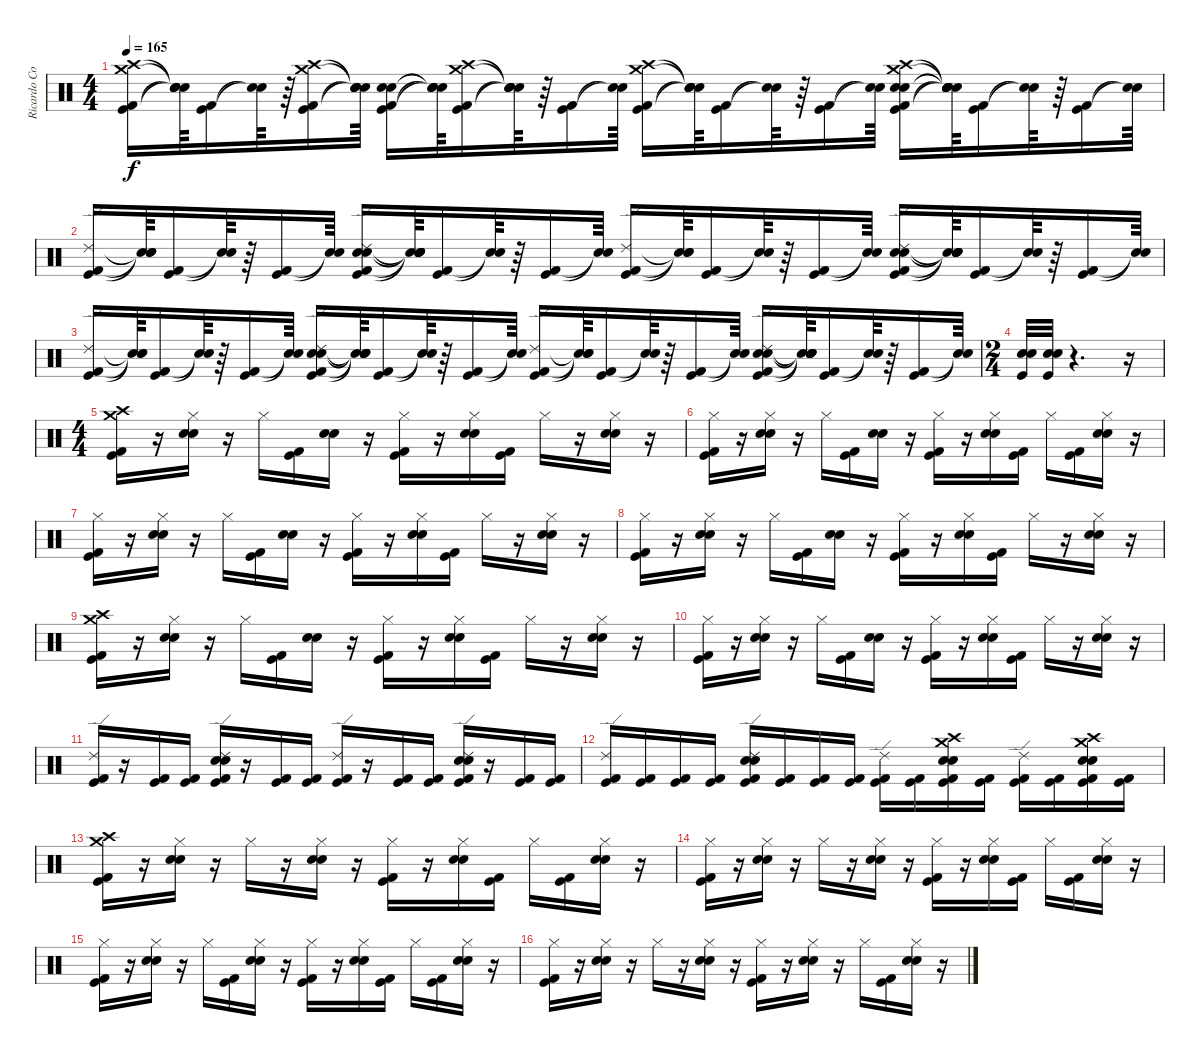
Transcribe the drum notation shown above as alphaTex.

\track ("Ricardo Confessori" "Ricardo Co") {instrument percussion}
\staff {score}
\articulation defaults
\ts (4 4)
\tempo 165
\clef neutral
\ks c
("Crash high (hit)" "Crash medium (hit)" "Kick (hit) 2" "Kick (hit)").16{dy f} ("Snare (hit)"{t} "Snare (hit)"{t} "Snare (hit)"{t} "Snare (hit)"{t}).64 ("Kick (hit) 2" "Kick (hit)").16 ("Snare (hit)"{t} "Snare (hit)"{t}).64 r.64 ("Crash medium (hit)" "Crash high (hit)" "Kick (hit) 2" "Kick (hit)").16 ("Snare (hit)"{t} "Snare (hit)"{t} "Snare (hit)"{t} "Snare (hit)"{t}).64 ("Electric Snare (hit)" "Snare (hit) 2" "Kick (hit) 2" "Kick (hit)").16 ("Snare (hit)"{t} "Snare (hit)"{t} "Snare (hit)"{t} "Snare (hit)"{t}).64 ("Crash medium (hit)" "Crash high (hit)" "Kick (hit) 2" "Kick (hit)").16 ("Snare (hit)"{t} "Snare (hit)"{t} "Snare (hit)"{t} "Snare (hit)"{t}).64 r.64 ("Kick (hit) 2" "Kick (hit)").16 ("Snare (hit)"{t} "Snare (hit)"{t}).64 ("Crash high (hit)" "Crash medium (hit)" "Kick (hit) 2" "Kick (hit)").16 ("Snare (hit)"{t} "Snare (hit)"{t} "Snare (hit)"{t} "Snare (hit)"{t}).64 ("Kick (hit) 2" "Kick (hit)").16 ("Snare (hit)"{t} "Snare (hit)"{t}).64 r.64 ("Kick (hit) 2" "Kick (hit)").16 ("Snare (hit)"{t} "Snare (hit)"{t}).64 ("Crash high (hit)" "Crash medium (hit)" "Electric Snare (hit)" "Snare (hit) 2" "Kick (hit) 2" "Kick (hit)").16 ("Snare (hit)"{t} "Snare (hit)"{t} "Snare (hit)"{t} "Snare (hit)"{t} "Snare (hit)"{t} "Snare (hit)"{t}).64 ("Kick (hit) 2" "Kick (hit)").16 ("Snare (hit)"{t} "Snare (hit)"{t}).64 r.64 ("Kick (hit) 2" "Kick (hit)").16 ("Snare (hit)"{t} "Snare (hit)"{t}).64 |
("Ride (edge) 2" "Kick (hit) 2" "Kick (hit)").16 ("Snare (hit)"{t} "Snare (hit)"{t} "Snare (hit)"{t}).64 ("Kick (hit) 2" "Kick (hit)").16 ("Snare (hit)"{t} "Snare (hit)"{t}).64 r.64 ("Kick (hit) 2" "Kick (hit)").16 ("Snare (hit)"{t} "Snare (hit)"{t}).64 ("Ride (edge) 2" "Electric Snare (hit)" "Snare (hit) 2" "Kick (hit) 2" "Kick (hit)").16 ("Snare (hit)"{t} "Snare (hit)"{t} "Snare (hit)"{t} "Snare (hit)"{t} "Snare (hit)"{t}).64 ("Kick (hit) 2" "Kick (hit)").16 ("Snare (hit)"{t} "Snare (hit)"{t}).64 r.64 ("Kick (hit) 2" "Kick (hit)").16 ("Snare (hit)"{t} "Snare (hit)"{t}).64 ("Ride (edge) 2" "Kick (hit) 2" "Kick (hit)").16 ("Snare (hit)"{t} "Snare (hit)"{t} "Snare (hit)"{t}).64 ("Kick (hit) 2" "Kick (hit)").16 ("Snare (hit)"{t} "Snare (hit)"{t}).64 r.64 ("Kick (hit) 2" "Kick (hit)").16 ("Snare (hit)"{t} "Snare (hit)"{t}).64 ("Ride (edge) 2" "Electric Snare (hit)" "Snare (hit) 2" "Kick (hit) 2" "Kick (hit)").16 ("Snare (hit)"{t} "Snare (hit)"{t} "Snare (hit)"{t} "Snare (hit)"{t} "Snare (hit)"{t}).64 ("Kick (hit) 2" "Kick (hit)").16 ("Snare (hit)"{t} "Snare (hit)"{t}).64 r.64 ("Kick (hit) 2" "Kick (hit)").16 ("Snare (hit)"{t} "Snare (hit)"{t}).64 |
("Ride (edge) 2" "Kick (hit) 2" "Kick (hit)").16 ("Snare (hit)"{t} "Snare (hit)"{t} "Snare (hit)"{t}).64 ("Kick (hit) 2" "Kick (hit)").16 ("Snare (hit)"{t} "Snare (hit)"{t}).64 r.64 ("Kick (hit) 2" "Kick (hit)").16 ("Snare (hit)"{t} "Snare (hit)"{t}).64 ("Ride (edge) 2" "Electric Snare (hit)" "Snare (hit) 2" "Kick (hit) 2" "Kick (hit)").16 ("Snare (hit)"{t} "Snare (hit)"{t} "Snare (hit)"{t} "Snare (hit)"{t} "Snare (hit)"{t}).64 ("Kick (hit) 2" "Kick (hit)").16 ("Snare (hit)"{t} "Snare (hit)"{t}).64 r.64 ("Kick (hit) 2" "Kick (hit)").16 ("Snare (hit)"{t} "Snare (hit)"{t}).64 ("Ride (edge) 2" "Kick (hit) 2" "Kick (hit)").16 ("Snare (hit)"{t} "Snare (hit)"{t} "Snare (hit)"{t}).64 ("Kick (hit) 2" "Kick (hit)").16 ("Snare (hit)"{t} "Snare (hit)"{t}).64 r.64 ("Kick (hit) 2" "Kick (hit)").16 ("Snare (hit)"{t} "Snare (hit)"{t}).64 ("Ride (edge) 2" "Electric Snare (hit)" "Snare (hit) 2" "Kick (hit) 2" "Kick (hit)").16 ("Snare (hit)"{t} "Snare (hit)"{t} "Snare (hit)"{t} "Snare (hit)"{t} "Snare (hit)"{t}).64 ("Kick (hit) 2" "Kick (hit)").16 ("Snare (hit)"{t} "Snare (hit)"{t}).64 r.64 ("Kick (hit) 2" "Kick (hit)").16 ("Snare (hit)"{t} "Snare (hit)"{t}).64 |
\ts (2 4)
("Kick (hit)" "Electric Snare (hit)" "Snare (hit) 2").32 ("Kick (hit)" "Electric Snare (hit)" "Snare (hit) 2").32 r.4{d} r.16 |
\ts (4 4)
("Crash high (hit)" "Crash medium (hit)" "Kick (hit) 2" "Kick (hit)").16 r.16 ("Hi-Hat (closed)" "Electric Snare (hit)" "Snare (hit) 2").16 r.16 "Hi-Hat (closed)".16 ("Kick (hit) 2" "Kick (hit)").16 ("Electric Snare (hit)" "Snare (hit) 2").16 r.16 ("Hi-Hat (closed)" "Kick (hit) 2" "Kick (hit)").16 r.16 ("Hi-Hat (closed)" "Electric Snare (hit)" "Snare (hit) 2").16 ("Kick (hit) 2" "Kick (hit)").16 "Hi-Hat (closed)".16 r.16 ("Hi-Hat (closed)" "Electric Snare (hit)" "Snare (hit) 2").16 r.16 |
("Hi-Hat (closed)" "Kick (hit) 2" "Kick (hit)").16 r.16 ("Hi-Hat (closed)" "Electric Snare (hit)" "Snare (hit) 2").16 r.16 "Hi-Hat (closed)".16 ("Kick (hit) 2" "Kick (hit)").16 ("Electric Snare (hit)" "Snare (hit) 2").16 r.16 ("Hi-Hat (closed)" "Kick (hit) 2" "Kick (hit)").16 r.16 ("Hi-Hat (closed)" "Electric Snare (hit)" "Snare (hit) 2").16 ("Kick (hit) 2" "Kick (hit)").16 "Hi-Hat (closed)".16 ("Kick (hit) 2" "Kick (hit)").16 ("Hi-Hat (closed)" "Electric Snare (hit)" "Snare (hit) 2").16 r.16 |
("Hi-Hat (closed)" "Kick (hit) 2" "Kick (hit)").16 r.16 ("Hi-Hat (closed)" "Electric Snare (hit)" "Snare (hit) 2").16 r.16 "Hi-Hat (closed)".16 ("Kick (hit) 2" "Kick (hit)").16 ("Electric Snare (hit)" "Snare (hit) 2").16 r.16 ("Hi-Hat (closed)" "Kick (hit) 2" "Kick (hit)").16 r.16 ("Hi-Hat (closed)" "Electric Snare (hit)" "Snare (hit) 2").16 ("Kick (hit) 2" "Kick (hit)").16 "Hi-Hat (closed)".16 r.16 ("Hi-Hat (closed)" "Electric Snare (hit)" "Snare (hit) 2").16 r.16 |
("Hi-Hat (closed)" "Kick (hit) 2" "Kick (hit)").16 r.16 ("Hi-Hat (closed)" "Electric Snare (hit)" "Snare (hit) 2").16 r.16 "Hi-Hat (closed)".16 ("Kick (hit) 2" "Kick (hit)").16 ("Electric Snare (hit)" "Snare (hit) 2").16 r.16 ("Hi-Hat (closed)" "Kick (hit) 2" "Kick (hit)").16 r.16 ("Hi-Hat (closed)" "Electric Snare (hit)" "Snare (hit) 2").16 ("Kick (hit) 2" "Kick (hit)").16 "Hi-Hat (closed)".16 r.16 ("Hi-Hat (closed)" "Electric Snare (hit)" "Snare (hit) 2").16 r.16 |
("Crash medium (hit)" "Crash high (hit)" "Kick (hit) 2" "Kick (hit)").16 r.16 ("Hi-Hat (closed)" "Electric Snare (hit)" "Snare (hit) 2").16 r.16 "Hi-Hat (closed)".16 ("Kick (hit) 2" "Kick (hit)").16 ("Electric Snare (hit)" "Snare (hit) 2").16 r.16 ("Hi-Hat (closed)" "Kick (hit) 2" "Kick (hit)").16 r.16 ("Hi-Hat (closed)" "Electric Snare (hit)" "Snare (hit) 2").16 ("Kick (hit) 2" "Kick (hit)").16 "Hi-Hat (closed)".16 r.16 ("Hi-Hat (closed)" "Electric Snare (hit)" "Snare (hit) 2").16 r.16 |
("Hi-Hat (closed)" "Kick (hit) 2" "Kick (hit)").16 r.16 ("Hi-Hat (closed)" "Electric Snare (hit)" "Snare (hit) 2").16 r.16 "Hi-Hat (closed)".16 ("Kick (hit) 2" "Kick (hit)").16 ("Electric Snare (hit)" "Snare (hit) 2").16 r.16 ("Hi-Hat (closed)" "Kick (hit) 2" "Kick (hit)").16 r.16 ("Hi-Hat (closed)" "Electric Snare (hit)" "Snare (hit) 2").16 ("Kick (hit) 2" "Kick (hit)").16 "Hi-Hat (closed)".16 r.16 ("Hi-Hat (closed)" "Electric Snare (hit)" "Snare (hit) 2").16 r.16 |
("Ride (edge) 2" "Kick (hit) 2" "Kick (hit)").16 r.16 ("Kick (hit) 2" "Kick (hit)").16 ("Kick (hit) 2" "Kick (hit)").16 ("Electric Snare (hit)" "Snare (hit) 2" "Ride (edge) 2" "Kick (hit) 2" "Kick (hit)").16 r.16 ("Kick (hit) 2" "Kick (hit)").16 ("Kick (hit) 2" "Kick (hit)").16 ("Ride (edge) 2" "Kick (hit) 2" "Kick (hit)").16 r.16 ("Kick (hit) 2" "Kick (hit)").16 ("Kick (hit) 2" "Kick (hit)").16 ("Electric Snare (hit)" "Snare (hit) 2" "Ride (edge) 2" "Kick (hit) 2" "Kick (hit)").16 r.16 ("Kick (hit) 2" "Kick (hit)").16 ("Kick (hit) 2" "Kick (hit)").16 |
("Ride (edge) 2" "Kick (hit) 2" "Kick (hit)").16 ("Kick (hit) 2" "Kick (hit)").16 ("Kick (hit) 2" "Kick (hit)").16 ("Kick (hit) 2" "Kick (hit)").16 ("Electric Snare (hit)" "Snare (hit) 2" "Ride (edge) 2" "Kick (hit) 2" "Kick (hit)").16 ("Kick (hit) 2" "Kick (hit)").16 ("Kick (hit) 2" "Kick (hit)").16 ("Kick (hit) 2" "Kick (hit)").16 ("Ride (edge) 2" "Kick (hit) 2" "Kick (hit)").16 ("Kick (hit) 2" "Kick (hit)").16 ("Crash high (hit)" "Electric Snare (hit)" "Snare (hit) 2" "Crash medium (hit)" "Kick (hit) 2" "Kick (hit)").16 ("Kick (hit) 2" "Kick (hit)").16 ("Ride (edge) 2" "Kick (hit) 2" "Kick (hit)").16 ("Kick (hit) 2" "Kick (hit)").16 ("Electric Snare (hit)" "Snare (hit) 2" "Crash high (hit)" "Crash medium (hit)" "Kick (hit) 2" "Kick (hit)").16 ("Kick (hit) 2" "Kick (hit)").16 |
("Crash high (hit)" "Crash medium (hit)" "Kick (hit) 2" "Kick (hit)").16 r.16 ("Hi-Hat (closed)" "Electric Snare (hit)" "Snare (hit) 2").16 r.16 "Hi-Hat (closed)".16 r.16 ("Hi-Hat (closed)" "Electric Snare (hit)" "Snare (hit) 2").16 r.16 ("Hi-Hat (closed)" "Kick (hit) 2" "Kick (hit)").16 r.16 ("Hi-Hat (closed)" "Electric Snare (hit)" "Snare (hit) 2").16 ("Kick (hit) 2" "Kick (hit)").16 "Hi-Hat (closed)".16 ("Kick (hit) 2" "Kick (hit)").16 ("Hi-Hat (closed)" "Electric Snare (hit)" "Snare (hit) 2").16 r.16 |
("Hi-Hat (closed)" "Kick (hit) 2" "Kick (hit)").16 r.16 ("Hi-Hat (closed)" "Electric Snare (hit)" "Snare (hit) 2").16 r.16 "Hi-Hat (closed)".16 r.16 ("Electric Snare (hit)" "Hi-Hat (closed)" "Snare (hit) 2").16 r.16 ("Hi-Hat (closed)" "Kick (hit) 2" "Kick (hit)").16 r.16 ("Hi-Hat (closed)" "Electric Snare (hit)" "Snare (hit) 2").16 ("Kick (hit) 2" "Kick (hit)").16 "Hi-Hat (closed)".16 ("Kick (hit) 2" "Kick (hit)").16 ("Hi-Hat (closed)" "Electric Snare (hit)" "Snare (hit) 2").16 r.16 |
("Hi-Hat (closed)" "Kick (hit) 2" "Kick (hit)").16 r.16 ("Hi-Hat (closed)" "Electric Snare (hit)" "Snare (hit) 2").16 r.16 "Hi-Hat (closed)".16 ("Kick (hit) 2" "Kick (hit)").16 ("Electric Snare (hit)" "Hi-Hat (closed)" "Snare (hit) 2").16 r.16 ("Hi-Hat (closed)" "Kick (hit) 2" "Kick (hit)").16 r.16 ("Hi-Hat (closed)" "Electric Snare (hit)" "Snare (hit) 2").16 ("Kick (hit) 2" "Kick (hit)").16 "Hi-Hat (closed)".16 ("Kick (hit) 2" "Kick (hit)").16 ("Hi-Hat (closed)" "Electric Snare (hit)" "Snare (hit) 2").16 r.16 |
("Hi-Hat (closed)" "Kick (hit) 2" "Kick (hit)").16 r.16 ("Hi-Hat (closed)" "Electric Snare (hit)" "Snare (hit) 2").16 r.16 "Hi-Hat (closed)".16 r.16 ("Electric Snare (hit)" "Hi-Hat (closed)" "Snare (hit) 2").16 r.16 ("Hi-Hat (closed)" "Kick (hit) 2" "Kick (hit)").16 r.16 ("Hi-Hat (closed)" "Electric Snare (hit)" "Snare (hit) 2").16 r.16 "Hi-Hat (closed)".16 ("Kick (hit) 2" "Kick (hit)").16 ("Hi-Hat (closed)" "Electric Snare (hit)" "Snare (hit) 2").16 r.16
